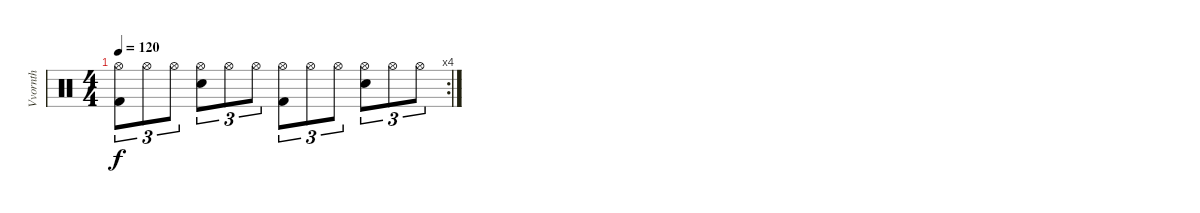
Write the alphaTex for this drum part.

\track ("Vvornth" "Vvornth") {instrument percussion}
\staff {score}
\articulation defaults
\rc 4
\ts (4 4)
\tempo 120
\clef neutral
\ks c
("Hi-Hat (open)" "Kick (hit) 2").8{tu (3 2) dy f} "Hi-Hat (open)".8{tu (3 2)} "Hi-Hat (open)".8{tu (3 2)} ("Hi-Hat (open)" "Snare (hit) 2").8{tu (3 2)} "Hi-Hat (open)".8{tu (3 2)} "Hi-Hat (open)".8{tu (3 2)} ("Hi-Hat (open)" "Kick (hit) 2").8{tu (3 2)} "Hi-Hat (open)".8{tu (3 2)} "Hi-Hat (open)".8{tu (3 2)} ("Hi-Hat (open)" "Snare (hit) 2").8{tu (3 2)} "Hi-Hat (open)".8{tu (3 2)} "Hi-Hat (open)".8{tu (3 2)}
